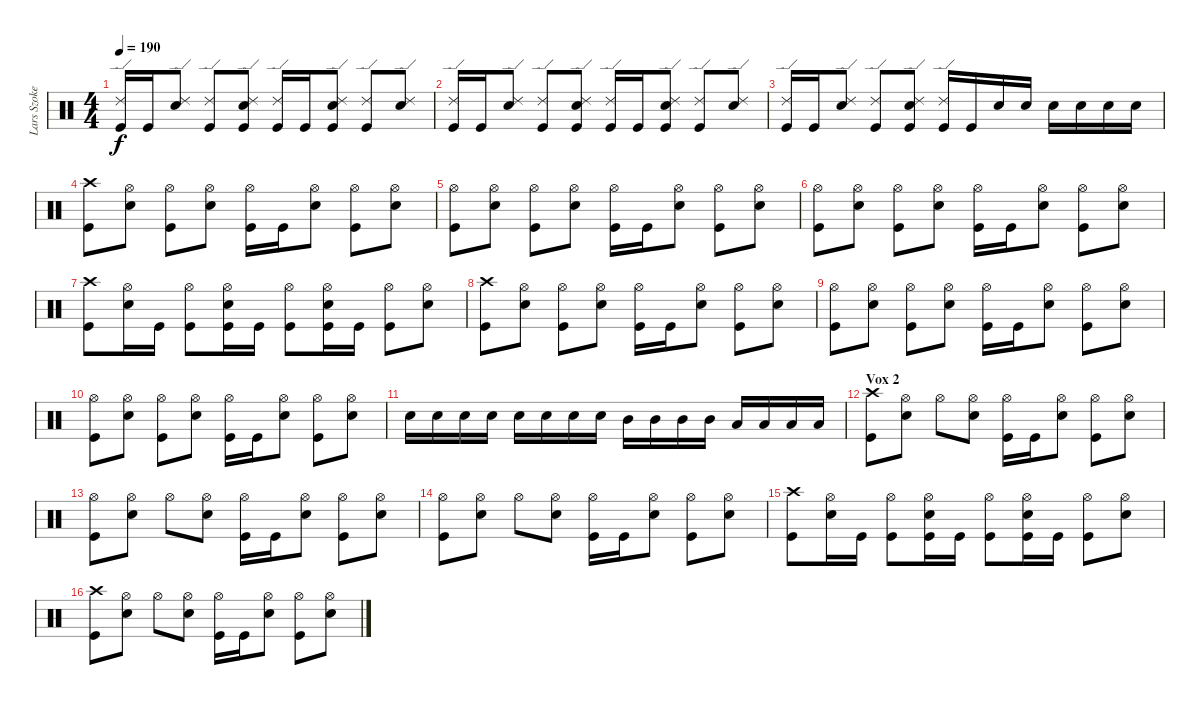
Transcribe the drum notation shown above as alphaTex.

\track ("Lars Szoke" "Lars Szoke") {instrument percussion}
\staff {score}
\articulation defaults
\ts (4 4)
\tempo 190
\clef neutral
\ks c
("Ride (edge) 2" "Kick (hit)").16{dy f} "Kick (hit)".16 ("Ride (edge) 2" "Snare (hit) 2").8 ("Ride (edge) 2" "Kick (hit)").8 ("Ride (edge) 2" "Snare (hit) 2" "Kick (hit)").8 ("Ride (edge) 2" "Kick (hit)").16 "Kick (hit)".16 ("Ride (edge) 2" "Snare (hit) 2" "Kick (hit)").8 ("Ride (edge) 2" "Kick (hit)").8 ("Ride (edge) 2" "Snare (hit) 2").8 |
("Ride (edge) 2" "Kick (hit)").16 "Kick (hit)".16 ("Ride (edge) 2" "Snare (hit) 2").8 ("Ride (edge) 2" "Kick (hit)").8 ("Ride (edge) 2" "Snare (hit) 2" "Kick (hit)").8 ("Ride (edge) 2" "Kick (hit)").16 "Kick (hit)".16 ("Ride (edge) 2" "Snare (hit) 2" "Kick (hit)").8 ("Ride (edge) 2" "Kick (hit)").8 ("Ride (edge) 2" "Snare (hit) 2").8 |
("Ride (edge) 2" "Kick (hit)").16 "Kick (hit)".16 ("Ride (edge) 2" "Snare (hit) 2").8 ("Ride (edge) 2" "Kick (hit)").8 ("Ride (edge) 2" "Snare (hit) 2" "Kick (hit)").8 ("Ride (edge) 2" "Kick (hit)").16 "Kick (hit)".16 "Snare (hit) 2".16 "Snare (hit) 2".16 "Snare (hit) 2".16 "Snare (hit) 2".16 "Snare (hit) 2".16 "Snare (hit) 2".16 |
("Crash high (hit)" "Kick (hit)").8 ("Hi-Hat (open)" "Snare (hit) 2").8 ("Hi-Hat (open)" "Kick (hit)").8 ("Hi-Hat (open)" "Snare (hit) 2").8 ("Hi-Hat (open)" "Kick (hit)").16 "Kick (hit)".16 ("Hi-Hat (open)" "Snare (hit) 2").8 ("Hi-Hat (open)" "Kick (hit)").8 ("Hi-Hat (open)" "Snare (hit) 2").8 |
("Hi-Hat (open)" "Kick (hit)").8 ("Hi-Hat (open)" "Snare (hit) 2").8 ("Hi-Hat (open)" "Kick (hit)").8 ("Hi-Hat (open)" "Snare (hit) 2").8 ("Hi-Hat (open)" "Kick (hit)").16 "Kick (hit)".16 ("Hi-Hat (open)" "Snare (hit) 2").8 ("Hi-Hat (open)" "Kick (hit)").8 ("Hi-Hat (open)" "Snare (hit) 2").8 |
("Hi-Hat (open)" "Kick (hit)").8 ("Hi-Hat (open)" "Snare (hit) 2").8 ("Hi-Hat (open)" "Kick (hit)").8 ("Hi-Hat (open)" "Snare (hit) 2").8 ("Hi-Hat (open)" "Kick (hit)").16 "Kick (hit)".16 ("Hi-Hat (open)" "Snare (hit) 2").8 ("Hi-Hat (open)" "Kick (hit)").8 ("Hi-Hat (open)" "Snare (hit) 2").8 |
("Crash high (hit)" "Kick (hit)").8 ("Hi-Hat (open)" "Snare (hit) 2").16 "Kick (hit)".16 ("Hi-Hat (open)" "Kick (hit)").8 ("Hi-Hat (open)" "Snare (hit) 2" "Kick (hit)").16 "Kick (hit)".16 ("Hi-Hat (open)" "Kick (hit)").8 ("Hi-Hat (open)" "Snare (hit) 2" "Kick (hit)").16 "Kick (hit)".16 ("Hi-Hat (open)" "Kick (hit)").8 ("Hi-Hat (open)" "Snare (hit) 2").8 |
("Crash high (hit)" "Kick (hit)").8 ("Hi-Hat (open)" "Snare (hit) 2").8 ("Hi-Hat (open)" "Kick (hit)").8 ("Hi-Hat (open)" "Snare (hit) 2").8 ("Hi-Hat (open)" "Kick (hit)").16 "Kick (hit)".16 ("Hi-Hat (open)" "Snare (hit) 2").8 ("Hi-Hat (open)" "Kick (hit)").8 ("Hi-Hat (open)" "Snare (hit) 2").8 |
("Hi-Hat (open)" "Kick (hit)").8 ("Hi-Hat (open)" "Snare (hit) 2").8 ("Hi-Hat (open)" "Kick (hit)").8 ("Hi-Hat (open)" "Snare (hit) 2").8 ("Hi-Hat (open)" "Kick (hit)").16 "Kick (hit)".16 ("Hi-Hat (open)" "Snare (hit) 2").8 ("Hi-Hat (open)" "Kick (hit)").8 ("Hi-Hat (open)" "Snare (hit) 2").8 |
("Hi-Hat (open)" "Kick (hit)").8 ("Hi-Hat (open)" "Snare (hit) 2").8 ("Hi-Hat (open)" "Kick (hit)").8 ("Hi-Hat (open)" "Snare (hit) 2").8 ("Hi-Hat (open)" "Kick (hit)").16 "Kick (hit)".16 ("Hi-Hat (open)" "Snare (hit) 2").8 ("Hi-Hat (open)" "Kick (hit)").8 ("Hi-Hat (open)" "Snare (hit) 2").8 |
"Snare (hit) 2".16 "Snare (hit) 2".16 "Snare (hit) 2".16 "Snare (hit) 2".16 "Snare (hit) 2".16 "Snare (hit) 2".16 "Snare (hit) 2".16 "Snare (hit) 2".16 "Mid Tom (hit)".16 "Mid Tom (hit)".16 "Mid Tom (hit)".16 "Mid Tom (hit)".16 "Low Tom (hit)".16 "Low Tom (hit)".16 "Low Tom (hit)".16 "Low Tom (hit)".16 |
\section ("" "Vox 2")
("Crash high (hit)" "Kick (hit)").8 ("Hi-Hat (open)" "Snare (hit) 2").8 "Hi-Hat (open)".8 ("Hi-Hat (open)" "Snare (hit) 2").8 ("Hi-Hat (open)" "Kick (hit)").16 "Kick (hit)".16 ("Hi-Hat (open)" "Snare (hit) 2").8 ("Hi-Hat (open)" "Kick (hit)").8 ("Hi-Hat (open)" "Snare (hit) 2").8 |
("Hi-Hat (open)" "Kick (hit)").8 ("Hi-Hat (open)" "Snare (hit) 2").8 "Hi-Hat (open)".8 ("Hi-Hat (open)" "Snare (hit) 2").8 ("Hi-Hat (open)" "Kick (hit)").16 "Kick (hit)".16 ("Hi-Hat (open)" "Snare (hit) 2").8 ("Hi-Hat (open)" "Kick (hit)").8 ("Hi-Hat (open)" "Snare (hit) 2").8 |
("Hi-Hat (open)" "Kick (hit)").8 ("Hi-Hat (open)" "Snare (hit) 2").8 "Hi-Hat (open)".8 ("Hi-Hat (open)" "Snare (hit) 2").8 ("Hi-Hat (open)" "Kick (hit)").16 "Kick (hit)".16 ("Hi-Hat (open)" "Snare (hit) 2").8 ("Hi-Hat (open)" "Kick (hit)").8 ("Hi-Hat (open)" "Snare (hit) 2").8 |
("Crash high (hit)" "Kick (hit)").8 ("Hi-Hat (open)" "Snare (hit) 2").16 "Kick (hit)".16 ("Hi-Hat (open)" "Kick (hit)").8 ("Hi-Hat (open)" "Snare (hit) 2" "Kick (hit)").16 "Kick (hit)".16 ("Hi-Hat (open)" "Kick (hit)").8 ("Hi-Hat (open)" "Snare (hit) 2" "Kick (hit)").16 "Kick (hit)".16 ("Hi-Hat (open)" "Kick (hit)").8 ("Hi-Hat (open)" "Snare (hit) 2").8 |
("Crash high (hit)" "Kick (hit)").8 ("Hi-Hat (open)" "Snare (hit) 2").8 "Hi-Hat (open)".8 ("Hi-Hat (open)" "Snare (hit) 2").8 ("Hi-Hat (open)" "Kick (hit)").16 "Kick (hit)".16 ("Hi-Hat (open)" "Snare (hit) 2").8 ("Hi-Hat (open)" "Kick (hit)").8 ("Hi-Hat (open)" "Snare (hit) 2").8
